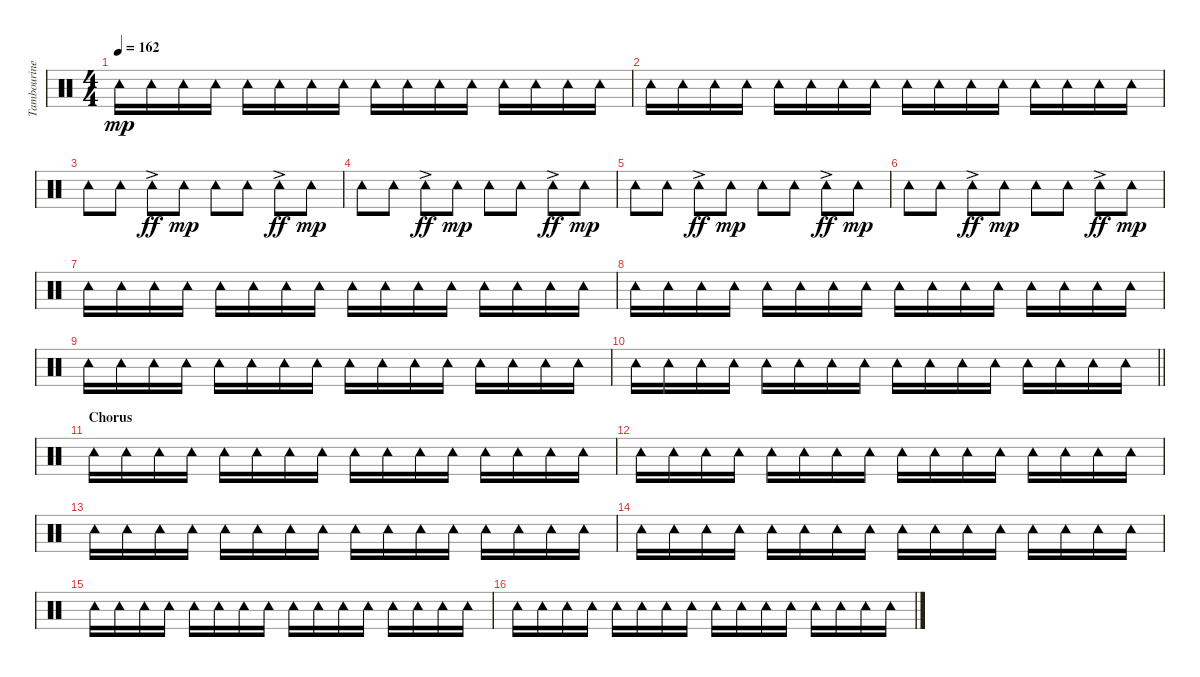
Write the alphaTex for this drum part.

\track ("Tambourine" "Tambourine") {instrument percussion}
\staff {score}
\articulation defaults
\ts (4 4)
\tempo 162
\clef neutral
\ks c "Tambourine (hit)".16{dy mp} "Tambourine (hit)".16 "Tambourine (hit)".16 "Tambourine (hit)".16 "Tambourine (hit)".16 "Tambourine (hit)".16 "Tambourine (hit)".16 "Tambourine (hit)".16 "Tambourine (hit)".16 "Tambourine (hit)".16 "Tambourine (hit)".16 "Tambourine (hit)".16 "Tambourine (hit)".16 "Tambourine (hit)".16 "Tambourine (hit)".16 "Tambourine (hit)".16
|
"Tambourine (hit)".16 "Tambourine (hit)".16 "Tambourine (hit)".16 "Tambourine (hit)".16 "Tambourine (hit)".16 "Tambourine (hit)".16 "Tambourine (hit)".16 "Tambourine (hit)".16 "Tambourine (hit)".16 "Tambourine (hit)".16 "Tambourine (hit)".16 "Tambourine (hit)".16 "Tambourine (hit)".16 "Tambourine (hit)".16 "Tambourine (hit)".16 "Tambourine (hit)".16 |
"Tambourine (hit)".8 "Tambourine (hit)".8 "Tambourine (hit)"{ac}.8{dy ff} "Tambourine (hit)".8{dy mp} "Tambourine (hit)".8 "Tambourine (hit)".8 "Tambourine (hit)"{ac}.8{dy ff} "Tambourine (hit)".8{dy mp} |
"Tambourine (hit)".8 "Tambourine (hit)".8 "Tambourine (hit)"{ac}.8{dy ff} "Tambourine (hit)".8{dy mp} "Tambourine (hit)".8 "Tambourine (hit)".8 "Tambourine (hit)"{ac}.8{dy ff} "Tambourine (hit)".8{dy mp} |
"Tambourine (hit)".8 "Tambourine (hit)".8 "Tambourine (hit)"{ac}.8{dy ff} "Tambourine (hit)".8{dy mp} "Tambourine (hit)".8 "Tambourine (hit)".8 "Tambourine (hit)"{ac}.8{dy ff} "Tambourine (hit)".8{dy mp} |
"Tambourine (hit)".8 "Tambourine (hit)".8 "Tambourine (hit)"{ac}.8{dy ff} "Tambourine (hit)".8{dy mp} "Tambourine (hit)".8 "Tambourine (hit)".8 "Tambourine (hit)"{ac}.8{dy ff} "Tambourine (hit)".8{dy mp} |
"Tambourine (hit)".16 "Tambourine (hit)".16 "Tambourine (hit)".16 "Tambourine (hit)".16 "Tambourine (hit)".16 "Tambourine (hit)".16 "Tambourine (hit)".16 "Tambourine (hit)".16 "Tambourine (hit)".16 "Tambourine (hit)".16 "Tambourine (hit)".16 "Tambourine (hit)".16 "Tambourine (hit)".16 "Tambourine (hit)".16 "Tambourine (hit)".16 "Tambourine (hit)".16 |
"Tambourine (hit)".16 "Tambourine (hit)".16 "Tambourine (hit)".16 "Tambourine (hit)".16 "Tambourine (hit)".16 "Tambourine (hit)".16 "Tambourine (hit)".16 "Tambourine (hit)".16 "Tambourine (hit)".16 "Tambourine (hit)".16 "Tambourine (hit)".16 "Tambourine (hit)".16 "Tambourine (hit)".16 "Tambourine (hit)".16 "Tambourine (hit)".16 "Tambourine (hit)".16 |
"Tambourine (hit)".16 "Tambourine (hit)".16 "Tambourine (hit)".16 "Tambourine (hit)".16 "Tambourine (hit)".16 "Tambourine (hit)".16 "Tambourine (hit)".16 "Tambourine (hit)".16 "Tambourine (hit)".16 "Tambourine (hit)".16 "Tambourine (hit)".16 "Tambourine (hit)".16 "Tambourine (hit)".16 "Tambourine (hit)".16 "Tambourine (hit)".16 "Tambourine (hit)".16 |
\barLineRight lightlight "Tambourine (hit)".16 "Tambourine (hit)".16 "Tambourine (hit)".16 "Tambourine (hit)".16 "Tambourine (hit)".16 "Tambourine (hit)".16 "Tambourine (hit)".16 "Tambourine (hit)".16 "Tambourine (hit)".16 "Tambourine (hit)".16 "Tambourine (hit)".16 "Tambourine (hit)".16 "Tambourine (hit)".16 "Tambourine (hit)".16 "Tambourine (hit)".16 "Tambourine (hit)".16
|
\section ("" "Chorus")
"Tambourine (hit)".16 "Tambourine (hit)".16 "Tambourine (hit)".16 "Tambourine (hit)".16 "Tambourine (hit)".16 "Tambourine (hit)".16 "Tambourine (hit)".16 "Tambourine (hit)".16 "Tambourine (hit)".16 "Tambourine (hit)".16 "Tambourine (hit)".16 "Tambourine (hit)".16 "Tambourine (hit)".16 "Tambourine (hit)".16 "Tambourine (hit)".16 "Tambourine (hit)".16 |
"Tambourine (hit)".16 "Tambourine (hit)".16 "Tambourine (hit)".16 "Tambourine (hit)".16 "Tambourine (hit)".16 "Tambourine (hit)".16 "Tambourine (hit)".16 "Tambourine (hit)".16 "Tambourine (hit)".16 "Tambourine (hit)".16 "Tambourine (hit)".16 "Tambourine (hit)".16 "Tambourine (hit)".16 "Tambourine (hit)".16 "Tambourine (hit)".16 "Tambourine (hit)".16 |
"Tambourine (hit)".16 "Tambourine (hit)".16 "Tambourine (hit)".16 "Tambourine (hit)".16 "Tambourine (hit)".16 "Tambourine (hit)".16 "Tambourine (hit)".16 "Tambourine (hit)".16 "Tambourine (hit)".16 "Tambourine (hit)".16 "Tambourine (hit)".16 "Tambourine (hit)".16 "Tambourine (hit)".16 "Tambourine (hit)".16 "Tambourine (hit)".16 "Tambourine (hit)".16 |
"Tambourine (hit)".16 "Tambourine (hit)".16 "Tambourine (hit)".16 "Tambourine (hit)".16 "Tambourine (hit)".16 "Tambourine (hit)".16 "Tambourine (hit)".16 "Tambourine (hit)".16 "Tambourine (hit)".16 "Tambourine (hit)".16 "Tambourine (hit)".16 "Tambourine (hit)".16 "Tambourine (hit)".16 "Tambourine (hit)".16 "Tambourine (hit)".16 "Tambourine (hit)".16 |
"Tambourine (hit)".16 "Tambourine (hit)".16 "Tambourine (hit)".16 "Tambourine (hit)".16 "Tambourine (hit)".16 "Tambourine (hit)".16 "Tambourine (hit)".16 "Tambourine (hit)".16 "Tambourine (hit)".16 "Tambourine (hit)".16 "Tambourine (hit)".16 "Tambourine (hit)".16 "Tambourine (hit)".16 "Tambourine (hit)".16 "Tambourine (hit)".16 "Tambourine (hit)".16 |
"Tambourine (hit)".16 "Tambourine (hit)".16 "Tambourine (hit)".16 "Tambourine (hit)".16 "Tambourine (hit)".16 "Tambourine (hit)".16 "Tambourine (hit)".16 "Tambourine (hit)".16 "Tambourine (hit)".16 "Tambourine (hit)".16 "Tambourine (hit)".16 "Tambourine (hit)".16 "Tambourine (hit)".16 "Tambourine (hit)".16 "Tambourine (hit)".16 "Tambourine (hit)".16
